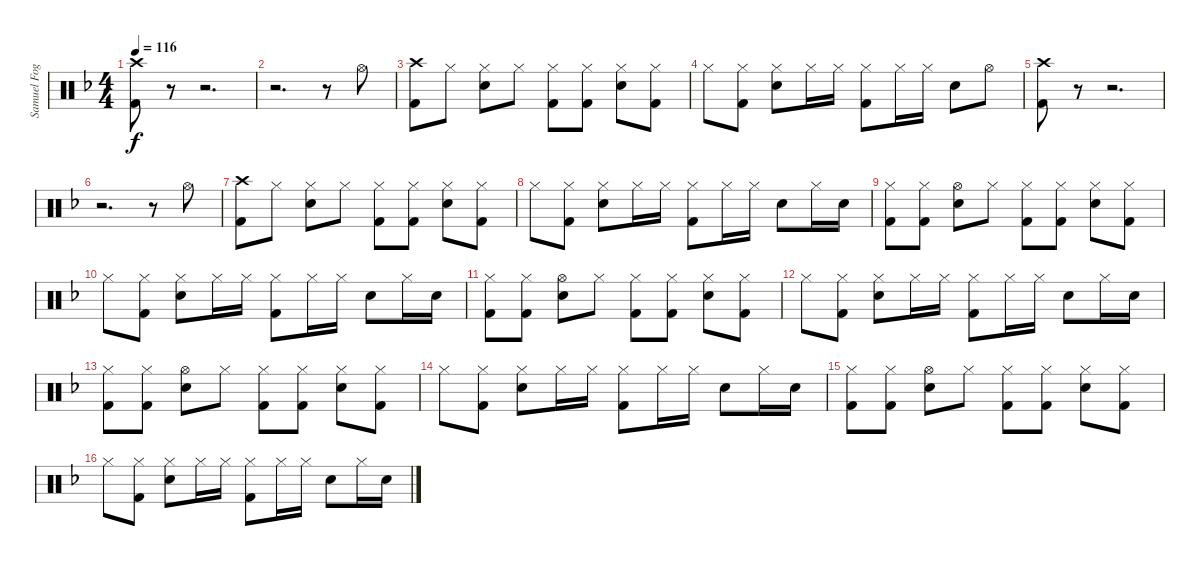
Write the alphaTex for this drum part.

\track ("Samuel Fogarino" "Samuel Fog") {instrument percussion}
\staff {score}
\articulation defaults
\ts (4 4)
\tempo 116
\clef neutral
\ks f
("Crash high (hit)" "Kick (hit) 2").8{dy f} r.8{volume 0} r.2{d} |
r.2{d volume 10} r.8 "Hi-Hat (open)".8 |
("Crash high (hit)" "Kick (hit) 2").8 "Hi-Hat (closed)".8 ("Hi-Hat (closed)" "Snare (hit) 2").8 "Hi-Hat (closed)".8 ("Hi-Hat (closed)" "Kick (hit) 2").8 ("Hi-Hat (closed)" "Kick (hit) 2").8 ("Hi-Hat (closed)" "Snare (hit) 2").8 ("Hi-Hat (closed)" "Kick (hit) 2").8 |
"Hi-Hat (closed)".8 ("Hi-Hat (closed)" "Kick (hit) 2").8 ("Hi-Hat (closed)" "Snare (hit) 2").8 "Hi-Hat (closed)".16 "Hi-Hat (closed)".16 ("Hi-Hat (closed)" "Kick (hit) 2").8 "Hi-Hat (closed)".16 "Hi-Hat (closed)".16 "Snare (hit) 2".8 "Hi-Hat (open)".8 |
("Crash high (hit)" "Kick (hit) 2").8 r.8{volume 0} r.2{d} |
r.2{d volume 10} r.8 "Hi-Hat (open)".8 |
("Crash high (hit)" "Kick (hit) 2").8 "Hi-Hat (closed)".8 ("Hi-Hat (closed)" "Snare (hit) 2").8 "Hi-Hat (closed)".8 ("Hi-Hat (closed)" "Kick (hit) 2").8 ("Hi-Hat (closed)" "Kick (hit) 2").8 ("Hi-Hat (closed)" "Snare (hit) 2").8 ("Hi-Hat (closed)" "Kick (hit) 2").8 |
"Hi-Hat (closed)".8 ("Hi-Hat (closed)" "Kick (hit) 2").8 ("Hi-Hat (closed)" "Snare (hit) 2").8 "Hi-Hat (closed)".16 "Hi-Hat (closed)".16 ("Hi-Hat (closed)" "Kick (hit) 2").8 "Hi-Hat (closed)".16 "Hi-Hat (closed)".16 "Snare (hit) 2".8 "Hi-Hat (closed)".16 "Snare (hit) 2".16 |
("Hi-Hat (closed)" "Kick (hit) 2").8 ("Hi-Hat (closed)" "Kick (hit) 2").8 ("Hi-Hat (open)" "Snare (hit) 2").8 "Hi-Hat (closed)".8 ("Hi-Hat (closed)" "Kick (hit) 2").8 ("Hi-Hat (closed)" "Kick (hit) 2").8 ("Hi-Hat (closed)" "Snare (hit) 2").8 ("Hi-Hat (closed)" "Kick (hit) 2").8 |
"Hi-Hat (closed)".8 ("Hi-Hat (closed)" "Kick (hit) 2").8 ("Hi-Hat (closed)" "Snare (hit) 2").8 "Hi-Hat (closed)".16 "Hi-Hat (closed)".16 ("Hi-Hat (closed)" "Kick (hit) 2").8 "Hi-Hat (closed)".16 "Hi-Hat (closed)".16 "Snare (hit) 2".8 "Hi-Hat (closed)".16 "Snare (hit) 2".16 |
("Hi-Hat (closed)" "Kick (hit) 2").8 ("Hi-Hat (closed)" "Kick (hit) 2").8 ("Hi-Hat (open)" "Snare (hit) 2").8 "Hi-Hat (closed)".8 ("Hi-Hat (closed)" "Kick (hit) 2").8 ("Hi-Hat (closed)" "Kick (hit) 2").8 ("Hi-Hat (closed)" "Snare (hit) 2").8 ("Hi-Hat (closed)" "Kick (hit) 2").8 |
"Hi-Hat (closed)".8 ("Hi-Hat (closed)" "Kick (hit) 2").8 ("Hi-Hat (closed)" "Snare (hit) 2").8 "Hi-Hat (closed)".16 "Hi-Hat (closed)".16 ("Hi-Hat (closed)" "Kick (hit) 2").8 "Hi-Hat (closed)".16 "Hi-Hat (closed)".16 "Snare (hit) 2".8 "Hi-Hat (closed)".16 "Snare (hit) 2".16 |
("Hi-Hat (closed)" "Kick (hit) 2").8 ("Hi-Hat (closed)" "Kick (hit) 2").8 ("Hi-Hat (open)" "Snare (hit) 2").8 "Hi-Hat (closed)".8 ("Hi-Hat (closed)" "Kick (hit) 2").8 ("Hi-Hat (closed)" "Kick (hit) 2").8 ("Hi-Hat (closed)" "Snare (hit) 2").8 ("Hi-Hat (closed)" "Kick (hit) 2").8 |
"Hi-Hat (closed)".8 ("Hi-Hat (closed)" "Kick (hit) 2").8 ("Hi-Hat (closed)" "Snare (hit) 2").8 "Hi-Hat (closed)".16 "Hi-Hat (closed)".16 ("Hi-Hat (closed)" "Kick (hit) 2").8 "Hi-Hat (closed)".16 "Hi-Hat (closed)".16 "Snare (hit) 2".8 "Hi-Hat (closed)".16 "Snare (hit) 2".16 |
("Hi-Hat (closed)" "Kick (hit) 2").8 ("Hi-Hat (closed)" "Kick (hit) 2").8 ("Hi-Hat (open)" "Snare (hit) 2").8 "Hi-Hat (closed)".8 ("Hi-Hat (closed)" "Kick (hit) 2").8 ("Hi-Hat (closed)" "Kick (hit) 2").8 ("Hi-Hat (closed)" "Snare (hit) 2").8 ("Hi-Hat (closed)" "Kick (hit) 2").8 |
"Hi-Hat (closed)".8 ("Hi-Hat (closed)" "Kick (hit) 2").8 ("Hi-Hat (closed)" "Snare (hit) 2").8 "Hi-Hat (closed)".16 "Hi-Hat (closed)".16 ("Hi-Hat (closed)" "Kick (hit) 2").8 "Hi-Hat (closed)".16 "Hi-Hat (closed)".16 "Snare (hit) 2".8 "Hi-Hat (closed)".16 "Snare (hit) 2".16
